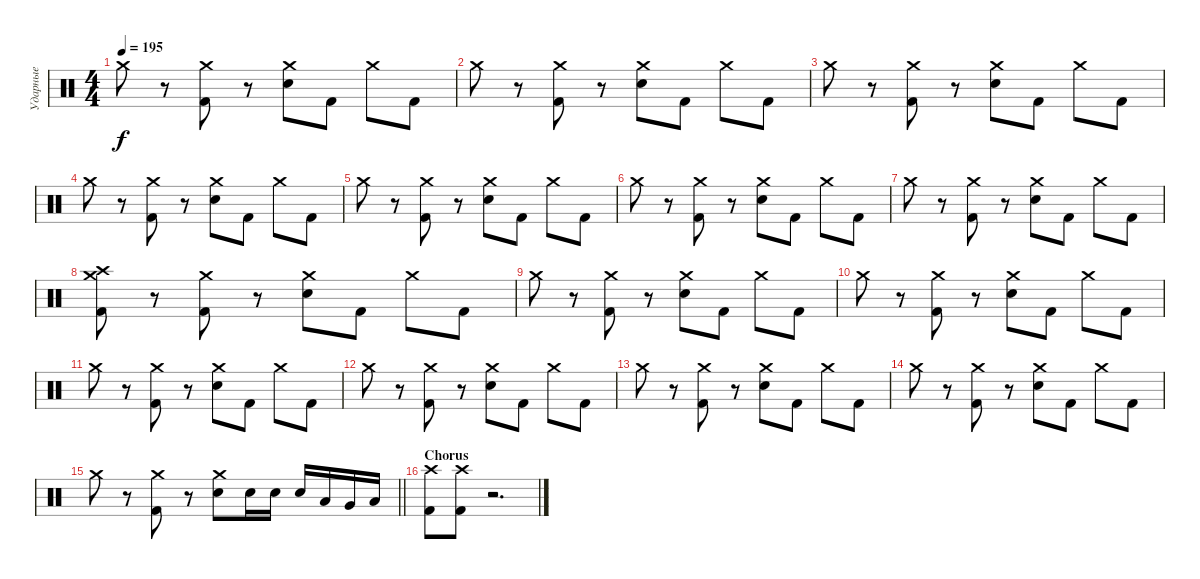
\track ("Ударные" "Ударные") {instrument percussion}
\staff {score}
\articulation defaults
\ts (4 4)
\tempo 195
\clef neutral
\ks c "Crash medium (hit)".8{dy f}
r.8 ("Crash medium (hit)" "Kick (hit) 2").8 r.8 ("Crash medium (hit)" "Electric Snare (hit)").8 "Kick (hit) 2".8 "Crash medium (hit)".8 "Kick (hit) 2".8 |
"Crash medium (hit)".8 r.8 ("Crash medium (hit)" "Kick (hit) 2").8 r.8 ("Crash medium (hit)" "Electric Snare (hit)").8 "Kick (hit) 2".8 "Crash medium (hit)".8 "Kick (hit) 2".8 |
"Crash medium (hit)".8 r.8 ("Crash medium (hit)" "Kick (hit) 2").8 r.8 ("Crash medium (hit)" "Electric Snare (hit)").8 "Kick (hit) 2".8 "Crash medium (hit)".8 "Kick (hit) 2".8 |
"Crash medium (hit)".8 r.8 ("Crash medium (hit)" "Kick (hit) 2").8 r.8 ("Crash medium (hit)" "Electric Snare (hit)").8 "Kick (hit) 2".8 "Crash medium (hit)".8 "Kick (hit) 2".8 |
"Crash medium (hit)".8 r.8 ("Crash medium (hit)" "Kick (hit) 2").8 r.8 ("Crash medium (hit)" "Electric Snare (hit)").8 "Kick (hit) 2".8 "Crash medium (hit)".8 "Kick (hit) 2".8 |
"Crash medium (hit)".8 r.8 ("Crash medium (hit)" "Kick (hit) 2").8 r.8 ("Crash medium (hit)" "Electric Snare (hit)").8 "Kick (hit) 2".8 "Crash medium (hit)".8 "Kick (hit) 2".8 |
"Crash medium (hit)".8 r.8 ("Crash medium (hit)" "Kick (hit) 2").8 r.8 ("Crash medium (hit)" "Electric Snare (hit)").8 "Kick (hit) 2".8 "Crash medium (hit)".8 "Kick (hit) 2".8 |
("Crash medium (hit)" "Crash high (hit)" "Kick (hit) 2").8 r.8 ("Crash medium (hit)" "Kick (hit) 2").8 r.8 ("Crash medium (hit)" "Electric Snare (hit)").8 "Kick (hit) 2".8 "Crash medium (hit)".8 "Kick (hit) 2".8 |
"Crash medium (hit)".8 r.8 ("Crash medium (hit)" "Kick (hit) 2").8 r.8 ("Crash medium (hit)" "Electric Snare (hit)").8 "Kick (hit) 2".8 "Crash medium (hit)".8 "Kick (hit) 2".8 |
"Crash medium (hit)".8 r.8 ("Crash medium (hit)" "Kick (hit) 2").8 r.8 ("Crash medium (hit)" "Electric Snare (hit)").8 "Kick (hit) 2".8 "Crash medium (hit)".8 "Kick (hit) 2".8 |
"Crash medium (hit)".8 r.8 ("Crash medium (hit)" "Kick (hit) 2").8 r.8 ("Crash medium (hit)" "Electric Snare (hit)").8 "Kick (hit) 2".8 "Crash medium (hit)".8 "Kick (hit) 2".8 |
"Crash medium (hit)".8 r.8 ("Crash medium (hit)" "Kick (hit) 2").8 r.8 ("Crash medium (hit)" "Electric Snare (hit)").8 "Kick (hit) 2".8 "Crash medium (hit)".8 "Kick (hit) 2".8 |
"Crash medium (hit)".8 r.8 ("Crash medium (hit)" "Kick (hit) 2").8 r.8 ("Crash medium (hit)" "Electric Snare (hit)").8 "Kick (hit) 2".8 "Crash medium (hit)".8 "Kick (hit) 2".8 |
"Crash medium (hit)".8 r.8 ("Crash medium (hit)" "Kick (hit) 2").8 r.8 ("Crash medium (hit)" "Electric Snare (hit)").8 "Kick (hit) 2".8 "Crash medium (hit)".8 "Kick (hit) 2".8 |
\barLineRight lightlight "Crash medium (hit)".8
r.8 ("Crash medium (hit)" "Kick (hit) 2").8 r.8 ("Crash medium (hit)" "Electric Snare (hit)").8 "Electric Snare (hit)".16 "Electric Snare (hit)".16 "Electric Snare (hit)".16 "Low Tom (hit)".16 "Very Low Tom (hit)".16 "Low Floor Tom (hit)".16 |
\section ("" "Сhorus")
("Crash high (hit)" "Kick (hit) 2").8 ("Crash high (hit)" "Kick (hit) 2").8 r.2{d}
